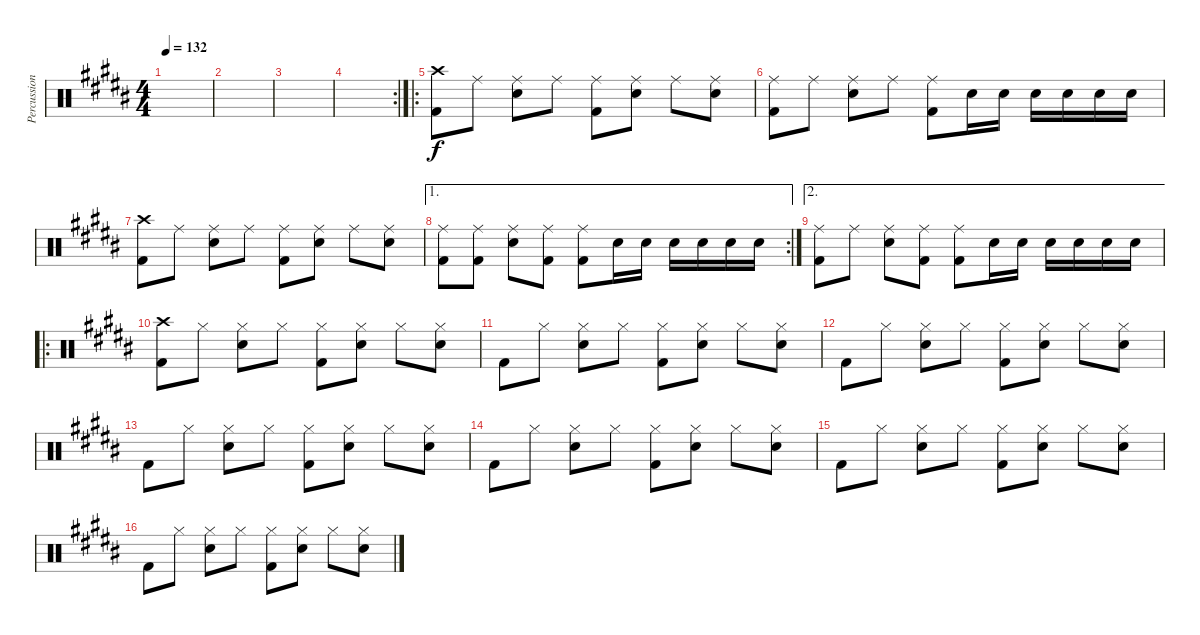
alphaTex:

\track ("Percussions (Will Champion)" "Percussion") {instrument percussion}
\staff {score}
\articulation defaults
\ts (4 4)
\tempo 132
\clef neutral
\ks b
|
|
|
\rc 2
|
\ro
("Crash high (hit)" "Kick (hit) 2").8 "Ride (middle)".8 ("Snare (hit) 2" "Ride (middle)").8 "Ride (middle)".8 ("Kick (hit) 2" "Ride (middle)").8 ("Snare (hit) 2" "Ride (middle)").8 "Ride (middle)".8 ("Snare (hit) 2" "Ride (middle)").8 |
("Kick (hit) 2" "Ride (middle)").8 "Ride (middle)".8 ("Snare (hit) 2" "Ride (middle)").8 "Ride (middle)".8 ("Kick (hit) 2" "Ride (middle)").8 "Snare (hit) 2".16 "Snare (hit) 2".16 "Snare (hit) 2".16 "Snare (hit) 2".16 "Snare (hit) 2".16 "Snare (hit) 2".16 |
("Crash high (hit)" "Kick (hit) 2").8 "Ride (middle)".8 ("Snare (hit) 2" "Ride (middle)").8 "Ride (middle)".8 ("Kick (hit) 2" "Ride (middle)").8 ("Snare (hit) 2" "Ride (middle)").8 "Ride (middle)".8 ("Snare (hit) 2" "Ride (middle)").8 |
\ae 1
\rc 2
("Kick (hit) 2" "Ride (middle)").8 ("Kick (hit) 2" "Ride (middle)").8 ("Snare (hit) 2" "Ride (middle)").8 ("Kick (hit) 2" "Ride (middle)").8 ("Kick (hit) 2" "Ride (middle)").8 "Snare (hit) 2".16 "Snare (hit) 2".16 "Snare (hit) 2".16 "Snare (hit) 2".16 "Snare (hit) 2".16 "Snare (hit) 2".16 |
\ae 2
("Kick (hit) 2" "Ride (middle)").8 "Ride (middle)".8 ("Snare (hit) 2" "Ride (middle)").8 ("Kick (hit) 2" "Ride (middle)").8 ("Kick (hit) 2" "Ride (middle)").8 "Snare (hit) 2".16 "Snare (hit) 2".16 "Snare (hit) 2".16 "Snare (hit) 2".16 "Snare (hit) 2".16 "Snare (hit) 2".16 |
\ro
("Crash high (hit)" "Kick (hit) 2").8 "Hi-Hat (closed)".8 ("Hi-Hat (closed)" "Snare (hit) 2").8 "Hi-Hat (closed)".8 ("Hi-Hat (closed)" "Kick (hit) 2").8 ("Hi-Hat (closed)" "Snare (hit) 2").8 "Hi-Hat (closed)".8 ("Hi-Hat (closed)" "Snare (hit) 2").8 |
"Kick (hit) 2".8 "Hi-Hat (closed)".8 ("Hi-Hat (closed)" "Snare (hit) 2").8 "Hi-Hat (closed)".8 ("Hi-Hat (closed)" "Kick (hit) 2").8 ("Hi-Hat (closed)" "Snare (hit) 2").8 "Hi-Hat (closed)".8 ("Hi-Hat (closed)" "Snare (hit) 2").8 |
"Kick (hit) 2".8 "Hi-Hat (closed)".8 ("Hi-Hat (closed)" "Snare (hit) 2").8 "Hi-Hat (closed)".8 ("Hi-Hat (closed)" "Kick (hit) 2").8 ("Hi-Hat (closed)" "Snare (hit) 2").8 "Hi-Hat (closed)".8 ("Hi-Hat (closed)" "Snare (hit) 2").8 |
"Kick (hit) 2".8 "Hi-Hat (closed)".8 ("Hi-Hat (closed)" "Snare (hit) 2").8 "Hi-Hat (closed)".8 ("Hi-Hat (closed)" "Kick (hit) 2").8 ("Hi-Hat (closed)" "Snare (hit) 2").8 "Hi-Hat (closed)".8 ("Hi-Hat (closed)" "Snare (hit) 2").8 |
"Kick (hit) 2".8 "Hi-Hat (closed)".8 ("Hi-Hat (closed)" "Snare (hit) 2").8 "Hi-Hat (closed)".8 ("Hi-Hat (closed)" "Kick (hit) 2").8 ("Hi-Hat (closed)" "Snare (hit) 2").8 "Hi-Hat (closed)".8 ("Hi-Hat (closed)" "Snare (hit) 2").8 |
"Kick (hit) 2".8 "Hi-Hat (closed)".8 ("Hi-Hat (closed)" "Snare (hit) 2").8 "Hi-Hat (closed)".8 ("Hi-Hat (closed)" "Kick (hit) 2").8 ("Hi-Hat (closed)" "Snare (hit) 2").8 "Hi-Hat (closed)".8 ("Hi-Hat (closed)" "Snare (hit) 2").8 |
"Kick (hit) 2".8 "Hi-Hat (closed)".8 ("Hi-Hat (closed)" "Snare (hit) 2").8 "Hi-Hat (closed)".8 ("Hi-Hat (closed)" "Kick (hit) 2").8 ("Hi-Hat (closed)" "Snare (hit) 2").8 "Hi-Hat (closed)".8 ("Hi-Hat (closed)" "Snare (hit) 2").8
